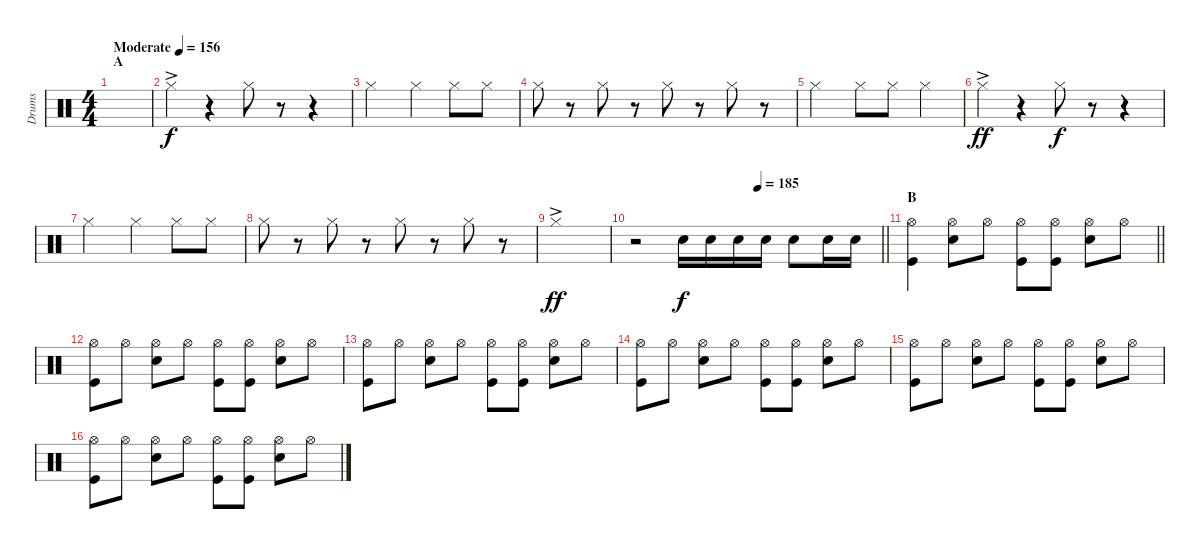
\track ("Drums" "Drums") {instrument percussion}
\staff {score}
\articulation defaults
\ts (4 4)
\section ("" "A")
\tempo (156 "Moderate")
\clef neutral
\ks c
|
"Hi-Hat (closed)"{ac}.4 r.4 "Hi-Hat (closed)".8{dy f} r.8 r.4 |
"Hi-Hat (closed)".2 "Hi-Hat (closed)".4 "Hi-Hat (closed)".8 "Hi-Hat (closed)".8 |
"Hi-Hat (closed)".8 r.8 "Hi-Hat (closed)".8 r.8 "Hi-Hat (closed)".8 r.8 "Hi-Hat (closed)".8 r.8 |
"Hi-Hat (closed)".2 "Hi-Hat (closed)".8 "Hi-Hat (closed)".8 "Hi-Hat (closed)".4 |
"Hi-Hat (closed)"{ac}.4{dy ff} r.4 "Hi-Hat (closed)".8{dy f} r.8 r.4 |
"Hi-Hat (closed)".2 "Hi-Hat (closed)".4 "Hi-Hat (closed)".8 "Hi-Hat (closed)".8 |
"Hi-Hat (closed)".8 r.8 "Hi-Hat (closed)".8 r.8 "Hi-Hat (closed)".8 r.8 "Hi-Hat (closed)".8 r.8 |
"Hi-Hat (closed)"{ac}.1{dy ff} |
\tempo (185 0.5)
\barLineRight lightlight
r.2 "Snare (hit) 2".16{dy f} "Snare (hit) 2".16 "Snare (hit) 2".16 "Snare (hit) 2".16 "Snare (hit) 2".8 "Snare (hit) 2".16 "Snare (hit) 2".16 |
\section ("" "B")
\barLineRight lightlight
("Kick (hit)" "Hi-Hat (open)").4 ("Snare (hit) 2" "Hi-Hat (open)").8 "Hi-Hat (open)".8 ("Hi-Hat (open)" "Kick (hit)").8 ("Hi-Hat (open)" "Kick (hit)").8 ("Hi-Hat (open)" "Snare (hit) 2").8 "Hi-Hat (open)".8 |
("Kick (hit)" "Hi-Hat (open)").8 "Hi-Hat (open)".8 ("Hi-Hat (open)" "Snare (hit) 2").8 "Hi-Hat (open)".8 ("Hi-Hat (open)" "Kick (hit)").8 ("Hi-Hat (open)" "Kick (hit)").8 ("Snare (hit) 2" "Hi-Hat (open)").8 "Hi-Hat (open)".8 |
("Kick (hit)" "Hi-Hat (open)").8 "Hi-Hat (open)".8 ("Hi-Hat (open)" "Snare (hit) 2").8 "Hi-Hat (open)".8 ("Hi-Hat (open)" "Kick (hit)").8 ("Hi-Hat (open)" "Kick (hit)").8 ("Snare (hit) 2" "Hi-Hat (open)").8 "Hi-Hat (open)".8 |
("Kick (hit)" "Hi-Hat (open)").8 "Hi-Hat (open)".8 ("Hi-Hat (open)" "Snare (hit) 2").8 "Hi-Hat (open)".8 ("Hi-Hat (open)" "Kick (hit)").8 ("Hi-Hat (open)" "Kick (hit)").8 ("Snare (hit) 2" "Hi-Hat (open)").8 "Hi-Hat (open)".8 |
("Kick (hit)" "Hi-Hat (open)").8 "Hi-Hat (open)".8 ("Hi-Hat (open)" "Snare (hit) 2").8 "Hi-Hat (open)".8 ("Hi-Hat (open)" "Kick (hit)").8 ("Hi-Hat (open)" "Kick (hit)").8 ("Snare (hit) 2" "Hi-Hat (open)").8 "Hi-Hat (open)".8 |
("Kick (hit)" "Hi-Hat (open)").8 "Hi-Hat (open)".8 ("Hi-Hat (open)" "Snare (hit) 2").8 "Hi-Hat (open)".8 ("Hi-Hat (open)" "Kick (hit)").8 ("Hi-Hat (open)" "Kick (hit)").8 ("Snare (hit) 2" "Hi-Hat (open)").8 "Hi-Hat (open)".8
